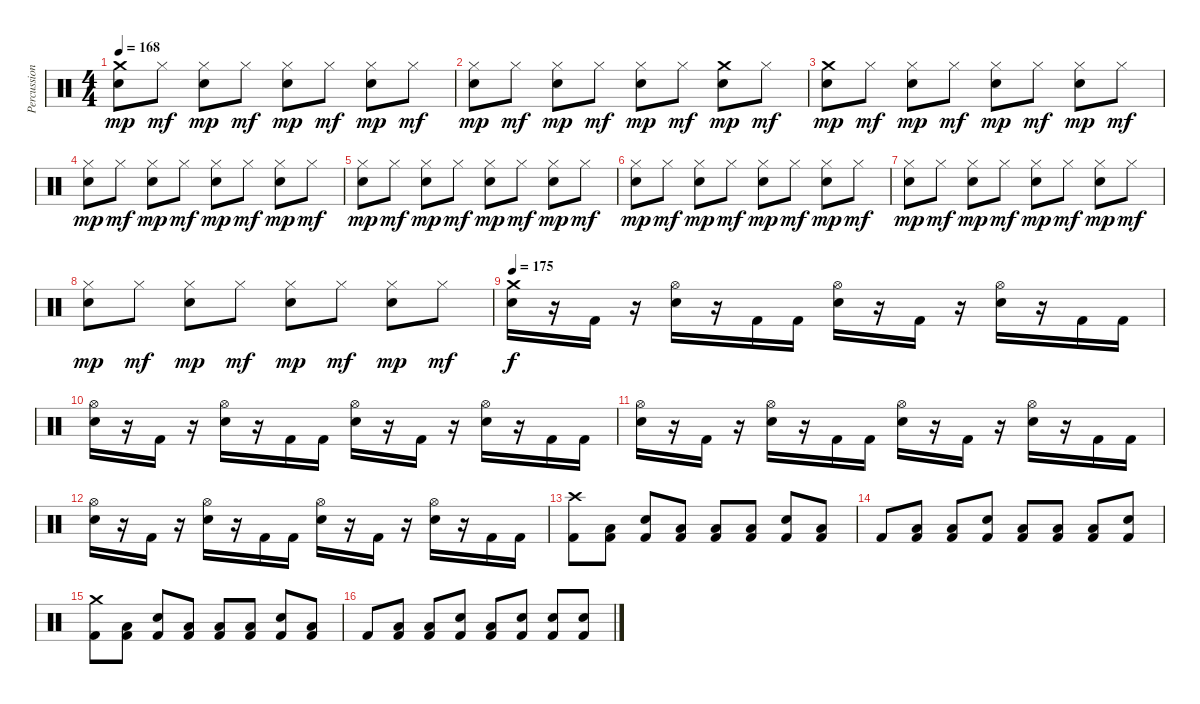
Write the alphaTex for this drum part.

\track ("Percussion" "Percussion") {instrument percussion}
\staff {score}
\articulation defaults
\ts (4 4)
\tempo 168
\clef neutral
\ks c
("Crash medium (hit)" "Electric Snare (hit)").8{dy mp} "Hi-Hat (closed)".8{dy mf} ("Hi-Hat (closed)" "Electric Snare (hit)").8{dy mp} "Hi-Hat (closed)".8{dy mf} ("Hi-Hat (closed)" "Electric Snare (hit)").8{dy mp} "Hi-Hat (closed)".8{dy mf} ("Hi-Hat (closed)" "Electric Snare (hit)").8{dy mp} "Hi-Hat (closed)".8{dy mf} |
("Hi-Hat (closed)" "Electric Snare (hit)").8{dy mp} "Hi-Hat (closed)".8{dy mf} ("Hi-Hat (closed)" "Electric Snare (hit)").8{dy mp} "Hi-Hat (closed)".8{dy mf} ("Hi-Hat (closed)" "Electric Snare (hit)").8{dy mp} "Hi-Hat (closed)".8{dy mf} ("Crash medium (hit)" "Electric Snare (hit)").8{dy mp} "Hi-Hat (closed)".8{dy mf} |
("Crash medium (hit)" "Electric Snare (hit)").8{dy mp} "Hi-Hat (closed)".8{dy mf} ("Hi-Hat (closed)" "Electric Snare (hit)").8{dy mp} "Hi-Hat (closed)".8{dy mf} ("Hi-Hat (closed)" "Electric Snare (hit)").8{dy mp} "Hi-Hat (closed)".8{dy mf} ("Hi-Hat (closed)" "Electric Snare (hit)").8{dy mp} "Hi-Hat (closed)".8{dy mf} |
("Hi-Hat (closed)" "Electric Snare (hit)").8{dy mp} "Hi-Hat (closed)".8{dy mf} ("Hi-Hat (closed)" "Electric Snare (hit)").8{dy mp} "Hi-Hat (closed)".8{dy mf} ("Hi-Hat (closed)" "Electric Snare (hit)").8{dy mp} "Hi-Hat (closed)".8{dy mf} ("Hi-Hat (closed)" "Electric Snare (hit)").8{dy mp} "Hi-Hat (closed)".8{dy mf} |
("Hi-Hat (closed)" "Electric Snare (hit)").8{dy mp} "Hi-Hat (closed)".8{dy mf} ("Hi-Hat (closed)" "Electric Snare (hit)").8{dy mp} "Hi-Hat (closed)".8{dy mf} ("Hi-Hat (closed)" "Electric Snare (hit)").8{dy mp} "Hi-Hat (closed)".8{dy mf} ("Hi-Hat (closed)" "Electric Snare (hit)").8{dy mp} "Hi-Hat (closed)".8{dy mf} |
("Hi-Hat (closed)" "Electric Snare (hit)").8{dy mp} "Hi-Hat (closed)".8{dy mf} ("Hi-Hat (closed)" "Electric Snare (hit)").8{dy mp} "Hi-Hat (closed)".8{dy mf} ("Hi-Hat (closed)" "Electric Snare (hit)").8{dy mp} "Hi-Hat (closed)".8{dy mf} ("Hi-Hat (closed)" "Electric Snare (hit)").8{dy mp} "Hi-Hat (closed)".8{dy mf} |
("Hi-Hat (closed)" "Electric Snare (hit)").8{dy mp} "Hi-Hat (closed)".8{dy mf} ("Hi-Hat (closed)" "Electric Snare (hit)").8{dy mp} "Hi-Hat (closed)".8{dy mf} ("Hi-Hat (closed)" "Electric Snare (hit)").8{dy mp} "Hi-Hat (closed)".8{dy mf} ("Hi-Hat (closed)" "Electric Snare (hit)").8{dy mp} "Hi-Hat (closed)".8{dy mf} |
("Hi-Hat (closed)" "Electric Snare (hit)").8{dy mp} "Hi-Hat (closed)".8{dy mf} ("Hi-Hat (closed)" "Electric Snare (hit)").8{dy mp} "Hi-Hat (closed)".8{dy mf} ("Hi-Hat (closed)" "Electric Snare (hit)").8{dy mp} "Hi-Hat (closed)".8{dy mf} ("Hi-Hat (closed)" "Electric Snare (hit)").8{dy mp} "Hi-Hat (closed)".8{dy mf} |
\tempo 175
("Crash medium (hit)" "Snare (hit) 2").16{dy f} r.16 "Kick (hit) 2".16 r.16 ("Hi-Hat (open)" "Snare (hit) 2").16 r.16 "Kick (hit) 2".16 "Kick (hit) 2".16 ("Hi-Hat (open)" "Snare (hit) 2").16 r.16 "Kick (hit) 2".16 r.16 ("Hi-Hat (open)" "Snare (hit) 2").16 r.16 "Kick (hit) 2".16 "Kick (hit) 2".16 |
("Hi-Hat (open)" "Snare (hit) 2").16 r.16 "Kick (hit) 2".16 r.16 ("Hi-Hat (open)" "Snare (hit) 2").16 r.16 "Kick (hit) 2".16 "Kick (hit) 2".16 ("Hi-Hat (open)" "Snare (hit) 2").16 r.16 "Kick (hit) 2".16 r.16 ("Hi-Hat (open)" "Snare (hit) 2").16 r.16 "Kick (hit) 2".16 "Kick (hit) 2".16 |
("Hi-Hat (open)" "Snare (hit) 2").16 r.16 "Kick (hit) 2".16 r.16 ("Hi-Hat (open)" "Snare (hit) 2").16 r.16 "Kick (hit) 2".16 "Kick (hit) 2".16 ("Hi-Hat (open)" "Snare (hit) 2").16 r.16 "Kick (hit) 2".16 r.16 ("Hi-Hat (open)" "Snare (hit) 2").16 r.16 "Kick (hit) 2".16 "Kick (hit) 2".16 |
("Hi-Hat (open)" "Snare (hit) 2").16 r.16 "Kick (hit) 2".16 r.16 ("Hi-Hat (open)" "Snare (hit) 2").16 r.16 "Kick (hit) 2".16 "Kick (hit) 2".16 ("Hi-Hat (open)" "Snare (hit) 2").16 r.16 "Kick (hit) 2".16 r.16 ("Hi-Hat (open)" "Snare (hit) 2").16 r.16 "Kick (hit) 2".16 "Kick (hit) 2".16 |
("Crash high (hit)" "Kick (hit) 2").8 ("Low Floor Tom (hit)" "Kick (hit) 2").8 ("Snare (hit) 2" "Kick (hit) 2").8 ("Low Floor Tom (hit)" "Kick (hit) 2").8 ("Low Floor Tom (hit)" "Kick (hit) 2").8 ("Low Floor Tom (hit)" "Kick (hit) 2").8 ("Snare (hit) 2" "Kick (hit) 2").8 ("Low Floor Tom (hit)" "Kick (hit) 2").8 |
"Kick (hit) 2".8 ("Low Floor Tom (hit)" "Kick (hit) 2").8 ("Low Floor Tom (hit)" "Kick (hit) 2").8 ("Snare (hit) 2" "Kick (hit) 2").8 ("Low Floor Tom (hit)" "Kick (hit) 2").8 ("Low Floor Tom (hit)" "Kick (hit) 2").8 ("Low Floor Tom (hit)" "Kick (hit) 2").8 ("Snare (hit) 2" "Kick (hit) 2").8 |
("Crash medium (hit)" "Kick (hit) 2").8 ("Low Floor Tom (hit)" "Kick (hit) 2").8 ("Snare (hit) 2" "Kick (hit) 2").8 ("Low Floor Tom (hit)" "Kick (hit) 2").8 ("Low Floor Tom (hit)" "Kick (hit) 2").8 ("Low Floor Tom (hit)" "Kick (hit) 2").8 ("Snare (hit) 2" "Kick (hit) 2").8 ("Low Floor Tom (hit)" "Kick (hit) 2").8 |
"Kick (hit) 2".8 ("Low Floor Tom (hit)" "Kick (hit) 2").8 ("Low Floor Tom (hit)" "Kick (hit) 2").8 ("Snare (hit) 2" "Kick (hit) 2").8 ("Low Floor Tom (hit)" "Kick (hit) 2").8 ("Snare (hit) 2" "Kick (hit) 2").8 ("Snare (hit) 2" "Kick (hit) 2").8 ("Snare (hit) 2" "Kick (hit) 2").8
